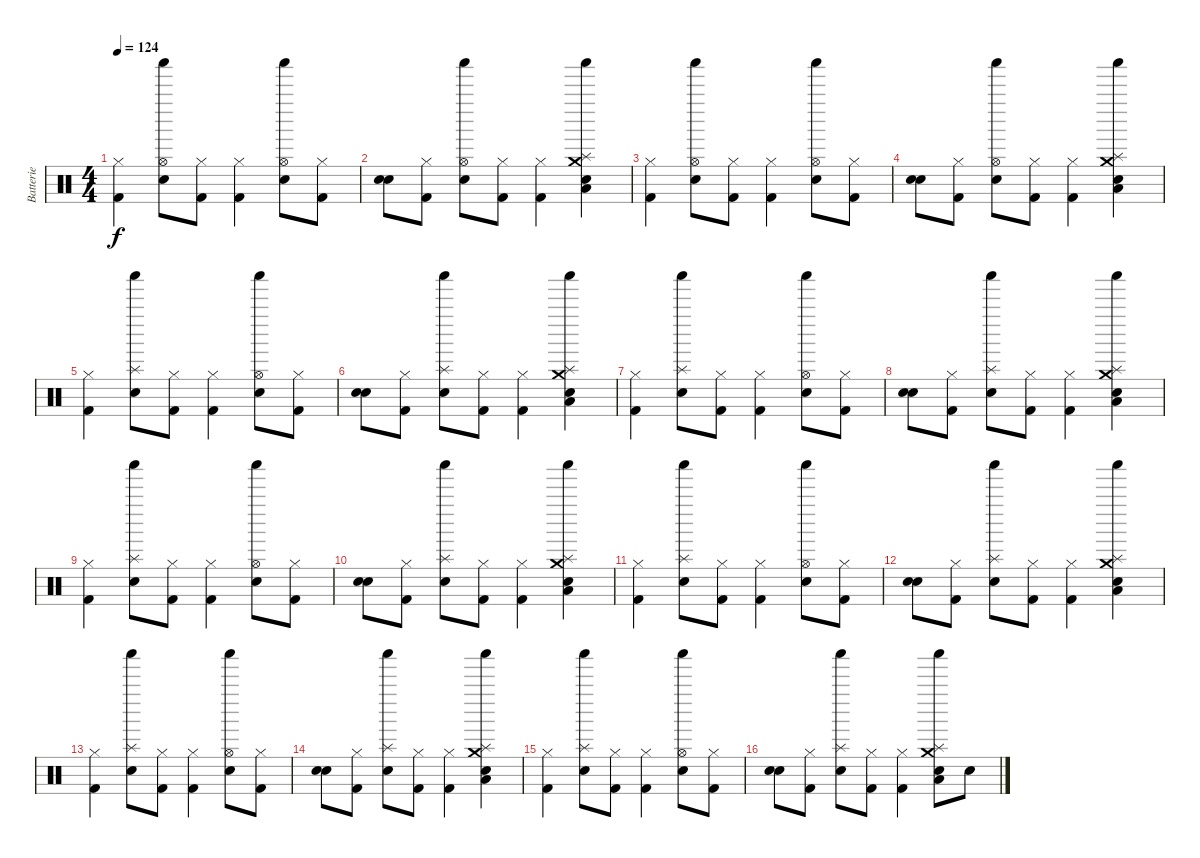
\track ("Batterie" "Batterie") {instrument percussion}
\staff {score}
\articulation defaults
\ts (4 4)
\tempo 124
\clef neutral
\ks c
("Hi-Hat (closed)" "Kick (hit) 2").4{dy f} ("Shaker (hit)" "Hi-Hat (open)" "Snare (hit) 2").8 ("Hi-Hat (closed)" "Kick (hit) 2").8 ("Hi-Hat (closed)" "Kick (hit) 2").4 ("Shaker (hit)" "Hi-Hat (open)" "Snare (hit) 2").8 ("Hi-Hat (closed)" "Kick (hit) 2").8 |
("Snare (hit)" "Snare (hit)").8 ("Hi-Hat (closed)" "Kick (hit) 2").8 ("Shaker (hit)" "Hi-Hat (open)" "Snare (hit) 2").8 ("Hi-Hat (closed)" "Kick (hit) 2").8 ("Hi-Hat (closed)" "Kick (hit) 2").4 ("Shaker (hit)" "Splash (hit)" "Snare (hit) 2" "Crash medium (hit)" "Low Tom (hit)").4 |
("Hi-Hat (closed)" "Kick (hit) 2").4 ("Shaker (hit)" "Hi-Hat (open)" "Snare (hit) 2").8 ("Hi-Hat (closed)" "Kick (hit) 2").8 ("Hi-Hat (closed)" "Kick (hit) 2").4 ("Shaker (hit)" "Hi-Hat (open)" "Snare (hit) 2").8 ("Hi-Hat (closed)" "Kick (hit) 2").8 |
("Snare (hit)" "Snare (hit)").8 ("Hi-Hat (closed)" "Kick (hit) 2").8 ("Shaker (hit)" "Hi-Hat (open)" "Snare (hit) 2").8 ("Hi-Hat (closed)" "Kick (hit) 2").8 ("Hi-Hat (closed)" "Kick (hit) 2").4 ("Shaker (hit)" "Splash (hit)" "Snare (hit) 2" "Crash medium (hit)" "Low Tom (hit)").4 |
("Hi-Hat (closed)" "Kick (hit) 2").4 ("Shaker (hit)" "Splash (hit)" "Snare (hit) 2").8 ("Hi-Hat (closed)" "Kick (hit) 2").8 ("Hi-Hat (closed)" "Kick (hit) 2").4 ("Shaker (hit)" "Hi-Hat (open)" "Snare (hit) 2").8 ("Hi-Hat (closed)" "Kick (hit) 2").8 |
("Snare (hit)" "Snare (hit)").8 ("Hi-Hat (closed)" "Kick (hit) 2").8 ("Shaker (hit)" "Splash (hit)" "Snare (hit) 2").8 ("Hi-Hat (closed)" "Kick (hit) 2").8 ("Hi-Hat (closed)" "Kick (hit) 2").4 ("Shaker (hit)" "Splash (hit)" "Snare (hit) 2" "Crash medium (hit)" "Low Tom (hit)").4 |
("Hi-Hat (closed)" "Kick (hit) 2").4 ("Shaker (hit)" "Splash (hit)" "Snare (hit) 2").8 ("Hi-Hat (closed)" "Kick (hit) 2").8 ("Hi-Hat (closed)" "Kick (hit) 2").4 ("Shaker (hit)" "Hi-Hat (open)" "Snare (hit) 2").8 ("Hi-Hat (closed)" "Kick (hit) 2").8 |
("Snare (hit)" "Snare (hit)").8 ("Hi-Hat (closed)" "Kick (hit) 2").8 ("Shaker (hit)" "Splash (hit)" "Snare (hit) 2").8 ("Hi-Hat (closed)" "Kick (hit) 2").8 ("Hi-Hat (closed)" "Kick (hit) 2").4 ("Shaker (hit)" "Splash (hit)" "Snare (hit) 2" "Crash medium (hit)" "Low Tom (hit)").4 |
("Hi-Hat (closed)" "Kick (hit) 2").4 ("Shaker (hit)" "Splash (hit)" "Snare (hit) 2").8 ("Hi-Hat (closed)" "Kick (hit) 2").8 ("Hi-Hat (closed)" "Kick (hit) 2").4 ("Shaker (hit)" "Hi-Hat (open)" "Snare (hit) 2").8 ("Hi-Hat (closed)" "Kick (hit) 2").8 |
("Snare (hit)" "Snare (hit)").8 ("Hi-Hat (closed)" "Kick (hit) 2").8 ("Shaker (hit)" "Splash (hit)" "Snare (hit) 2").8 ("Hi-Hat (closed)" "Kick (hit) 2").8 ("Hi-Hat (closed)" "Kick (hit) 2").4 ("Shaker (hit)" "Splash (hit)" "Snare (hit) 2" "Crash medium (hit)" "Low Tom (hit)").4 |
("Hi-Hat (closed)" "Kick (hit) 2").4 ("Shaker (hit)" "Splash (hit)" "Snare (hit) 2").8 ("Hi-Hat (closed)" "Kick (hit) 2").8 ("Hi-Hat (closed)" "Kick (hit) 2").4 ("Shaker (hit)" "Hi-Hat (open)" "Snare (hit) 2").8 ("Hi-Hat (closed)" "Kick (hit) 2").8 |
("Snare (hit)" "Snare (hit)").8 ("Hi-Hat (closed)" "Kick (hit) 2").8 ("Shaker (hit)" "Splash (hit)" "Snare (hit) 2").8 ("Hi-Hat (closed)" "Kick (hit) 2").8 ("Hi-Hat (closed)" "Kick (hit) 2").4 ("Shaker (hit)" "Splash (hit)" "Snare (hit) 2" "Crash medium (hit)" "Low Tom (hit)").4 |
("Hi-Hat (closed)" "Kick (hit) 2").4 ("Shaker (hit)" "Splash (hit)" "Snare (hit) 2").8 ("Hi-Hat (closed)" "Kick (hit) 2").8 ("Hi-Hat (closed)" "Kick (hit) 2").4 ("Shaker (hit)" "Hi-Hat (open)" "Snare (hit) 2").8 ("Hi-Hat (closed)" "Kick (hit) 2").8 |
("Snare (hit)" "Snare (hit)").8 ("Hi-Hat (closed)" "Kick (hit) 2").8 ("Shaker (hit)" "Splash (hit)" "Snare (hit) 2").8 ("Hi-Hat (closed)" "Kick (hit) 2").8 ("Hi-Hat (closed)" "Kick (hit) 2").4 ("Shaker (hit)" "Splash (hit)" "Snare (hit) 2" "Crash medium (hit)" "Low Tom (hit)").4 |
("Hi-Hat (closed)" "Kick (hit) 2").4 ("Shaker (hit)" "Splash (hit)" "Snare (hit) 2").8 ("Hi-Hat (closed)" "Kick (hit) 2").8 ("Hi-Hat (closed)" "Kick (hit) 2").4 ("Shaker (hit)" "Hi-Hat (open)" "Snare (hit) 2").8 ("Hi-Hat (closed)" "Kick (hit) 2").8 |
("Snare (hit)" "Snare (hit)").8 ("Hi-Hat (closed)" "Kick (hit) 2").8 ("Shaker (hit)" "Splash (hit)" "Snare (hit) 2").8 ("Hi-Hat (closed)" "Kick (hit) 2").8 ("Hi-Hat (closed)" "Kick (hit) 2").4 ("Shaker (hit)" "Splash (hit)" "Snare (hit) 2" "Crash medium (hit)" "Low Tom (hit)").8 "Snare (hit) 2".8
